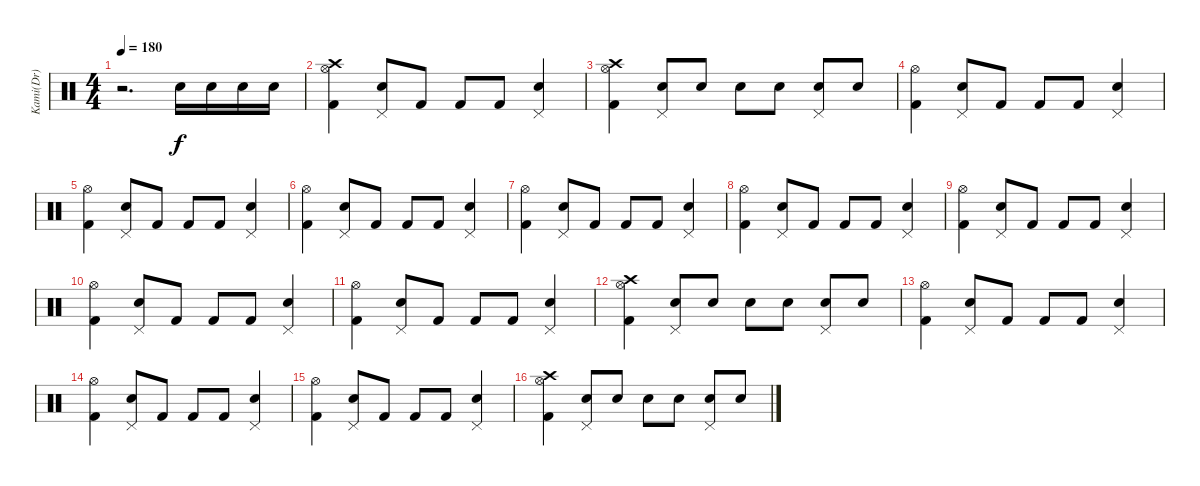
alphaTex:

\track ("Kami(Dr)" "Kami(Dr)") {instrument percussion}
\staff {score}
\articulation defaults
\ts (4 4)
\tempo 180
\clef neutral
\ks c
r.2{d dy f} "Electric Snare (hit)".16 "Electric Snare (hit)".16 "Electric Snare (hit)".16 "Electric Snare (hit)".16 |
("Kick (hit) 2" "Hi-Hat (open)" "Crash high (hit)").4 ("Electric Snare (hit)" "Pedal Hi-Hat (hit)").8 "Kick (hit) 2".8 "Kick (hit) 2".8 "Kick (hit) 2".8 ("Electric Snare (hit)" "Pedal Hi-Hat (hit)").4 |
("Kick (hit) 2" "Hi-Hat (open)" "Crash high (hit)").4 ("Electric Snare (hit)" "Pedal Hi-Hat (hit)").8 "Electric Snare (hit)".8 "Electric Snare (hit)".8 "Electric Snare (hit)".8 ("Electric Snare (hit)" "Pedal Hi-Hat (hit)").8 "Electric Snare (hit)".8 |
("Kick (hit) 2" "Hi-Hat (open)").4 ("Electric Snare (hit)" "Pedal Hi-Hat (hit)").8 "Kick (hit) 2".8 "Kick (hit) 2".8 "Kick (hit) 2".8 ("Electric Snare (hit)" "Pedal Hi-Hat (hit)").4 |
("Kick (hit) 2" "Hi-Hat (open)").4 ("Electric Snare (hit)" "Pedal Hi-Hat (hit)").8 "Kick (hit) 2".8 "Kick (hit) 2".8 "Kick (hit) 2".8 ("Electric Snare (hit)" "Pedal Hi-Hat (hit)").4 |
("Kick (hit) 2" "Hi-Hat (open)").4 ("Electric Snare (hit)" "Pedal Hi-Hat (hit)").8 "Kick (hit) 2".8 "Kick (hit) 2".8 "Kick (hit) 2".8 ("Electric Snare (hit)" "Pedal Hi-Hat (hit)").4 |
("Kick (hit) 2" "Hi-Hat (open)").4 ("Electric Snare (hit)" "Pedal Hi-Hat (hit)").8 "Kick (hit) 2".8 "Kick (hit) 2".8 "Kick (hit) 2".8 ("Electric Snare (hit)" "Pedal Hi-Hat (hit)").4 |
("Kick (hit) 2" "Hi-Hat (open)").4 ("Electric Snare (hit)" "Pedal Hi-Hat (hit)").8 "Kick (hit) 2".8 "Kick (hit) 2".8 "Kick (hit) 2".8 ("Electric Snare (hit)" "Pedal Hi-Hat (hit)").4 |
("Kick (hit) 2" "Hi-Hat (open)").4 ("Electric Snare (hit)" "Pedal Hi-Hat (hit)").8 "Kick (hit) 2".8 "Kick (hit) 2".8 "Kick (hit) 2".8 ("Electric Snare (hit)" "Pedal Hi-Hat (hit)").4 |
("Kick (hit) 2" "Hi-Hat (open)").4 ("Electric Snare (hit)" "Pedal Hi-Hat (hit)").8 "Kick (hit) 2".8 "Kick (hit) 2".8 "Kick (hit) 2".8 ("Electric Snare (hit)" "Pedal Hi-Hat (hit)").4 |
("Kick (hit) 2" "Hi-Hat (open)").4 ("Electric Snare (hit)" "Pedal Hi-Hat (hit)").8 "Kick (hit) 2".8 "Kick (hit) 2".8 "Kick (hit) 2".8 ("Electric Snare (hit)" "Pedal Hi-Hat (hit)").4 |
("Kick (hit) 2" "Hi-Hat (open)" "Crash high (hit)").4 ("Electric Snare (hit)" "Pedal Hi-Hat (hit)").8 "Electric Snare (hit)".8 "Electric Snare (hit)".8 "Electric Snare (hit)".8 ("Electric Snare (hit)" "Pedal Hi-Hat (hit)").8 "Electric Snare (hit)".8 |
("Kick (hit) 2" "Hi-Hat (open)").4 ("Electric Snare (hit)" "Pedal Hi-Hat (hit)").8 "Kick (hit) 2".8 "Kick (hit) 2".8 "Kick (hit) 2".8 ("Electric Snare (hit)" "Pedal Hi-Hat (hit)").4 |
("Kick (hit) 2" "Hi-Hat (open)").4 ("Electric Snare (hit)" "Pedal Hi-Hat (hit)").8 "Kick (hit) 2".8 "Kick (hit) 2".8 "Kick (hit) 2".8 ("Electric Snare (hit)" "Pedal Hi-Hat (hit)").4 |
("Kick (hit) 2" "Hi-Hat (open)").4 ("Electric Snare (hit)" "Pedal Hi-Hat (hit)").8 "Kick (hit) 2".8 "Kick (hit) 2".8 "Kick (hit) 2".8 ("Electric Snare (hit)" "Pedal Hi-Hat (hit)").4 |
("Kick (hit) 2" "Hi-Hat (open)" "Crash high (hit)").4 ("Electric Snare (hit)" "Pedal Hi-Hat (hit)").8 "Electric Snare (hit)".8 "Electric Snare (hit)".8 "Electric Snare (hit)".8 ("Electric Snare (hit)" "Pedal Hi-Hat (hit)").8 "Electric Snare (hit)".8
